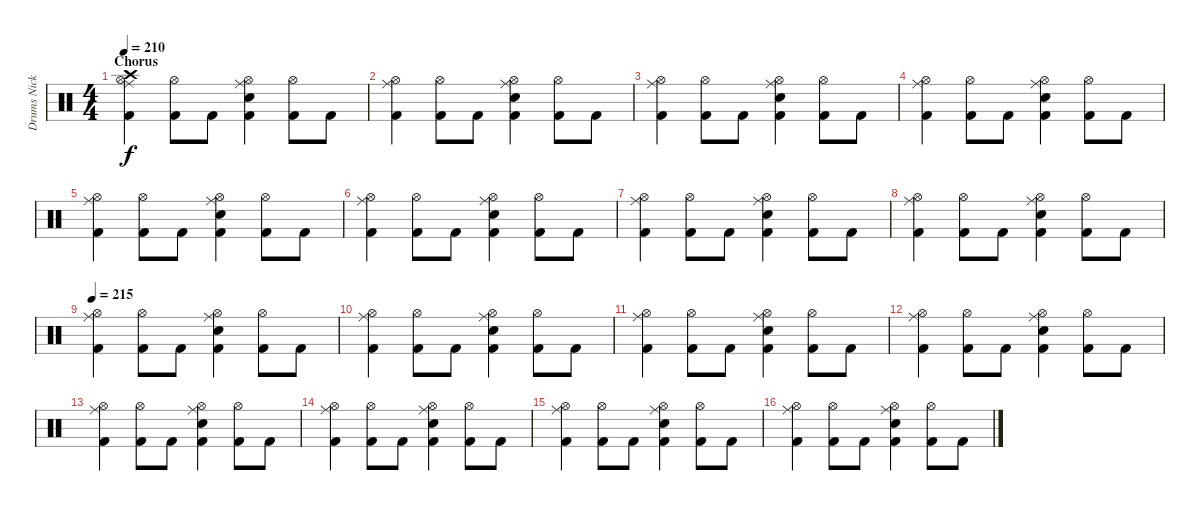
\track ("Drums Nicko McBrain" "Drums Nick") {instrument percussion}
\staff {score}
\articulation defaults
\ts (4 4)
\section ("" "Chorus")
\tempo 210
\clef neutral
\ks c
("Hi-Hat (open)" "Ride (middle)" "Crash high (hit)" "Kick (hit) 2").4{dy f} ("Hi-Hat (open)" "Kick (hit) 2").8 "Kick (hit) 2".8 ("Hi-Hat (open)" "Snare (hit) 2" "Ride (middle)" "Kick (hit) 2").4 ("Hi-Hat (open)" "Kick (hit) 2").8 "Kick (hit) 2".8 |
("Hi-Hat (open)" "Ride (middle)" "Kick (hit) 2").4 ("Hi-Hat (open)" "Kick (hit) 2").8 "Kick (hit) 2".8 ("Hi-Hat (open)" "Snare (hit) 2" "Ride (middle)" "Kick (hit) 2").4 ("Hi-Hat (open)" "Kick (hit) 2").8 "Kick (hit) 2".8 |
("Hi-Hat (open)" "Ride (middle)" "Kick (hit) 2").4 ("Hi-Hat (open)" "Kick (hit) 2").8 "Kick (hit) 2".8 ("Hi-Hat (open)" "Snare (hit) 2" "Ride (middle)" "Kick (hit) 2").4 ("Hi-Hat (open)" "Kick (hit) 2").8 "Kick (hit) 2".8 |
("Hi-Hat (open)" "Ride (middle)" "Kick (hit) 2").4 ("Hi-Hat (open)" "Kick (hit) 2").8 "Kick (hit) 2".8 ("Hi-Hat (open)" "Snare (hit) 2" "Ride (middle)" "Kick (hit) 2").4 ("Hi-Hat (open)" "Kick (hit) 2").8 "Kick (hit) 2".8 |
("Hi-Hat (open)" "Ride (middle)" "Kick (hit) 2").4 ("Hi-Hat (open)" "Kick (hit) 2").8 "Kick (hit) 2".8 ("Hi-Hat (open)" "Snare (hit) 2" "Ride (middle)" "Kick (hit) 2").4 ("Hi-Hat (open)" "Kick (hit) 2").8 "Kick (hit) 2".8 |
("Hi-Hat (open)" "Ride (middle)" "Kick (hit) 2").4 ("Hi-Hat (open)" "Kick (hit) 2").8 "Kick (hit) 2".8 ("Hi-Hat (open)" "Snare (hit) 2" "Ride (middle)" "Kick (hit) 2").4 ("Hi-Hat (open)" "Kick (hit) 2").8 "Kick (hit) 2".8 |
("Hi-Hat (open)" "Ride (middle)" "Kick (hit) 2").4 ("Hi-Hat (open)" "Kick (hit) 2").8 "Kick (hit) 2".8 ("Hi-Hat (open)" "Snare (hit) 2" "Ride (middle)" "Kick (hit) 2").4 ("Hi-Hat (open)" "Kick (hit) 2").8 "Kick (hit) 2".8 |
("Hi-Hat (open)" "Ride (middle)" "Kick (hit) 2").4 ("Hi-Hat (open)" "Kick (hit) 2").8 "Kick (hit) 2".8 ("Hi-Hat (open)" "Snare (hit) 2" "Ride (middle)" "Kick (hit) 2").4 ("Hi-Hat (open)" "Kick (hit) 2").8 "Kick (hit) 2".8 |
\tempo 215
("Hi-Hat (open)" "Ride (middle)" "Kick (hit) 2").4 ("Hi-Hat (open)" "Kick (hit) 2").8 "Kick (hit) 2".8 ("Hi-Hat (open)" "Snare (hit) 2" "Ride (middle)" "Kick (hit) 2").4 ("Hi-Hat (open)" "Kick (hit) 2").8 "Kick (hit) 2".8 |
("Hi-Hat (open)" "Ride (middle)" "Kick (hit) 2").4 ("Hi-Hat (open)" "Kick (hit) 2").8 "Kick (hit) 2".8 ("Hi-Hat (open)" "Snare (hit) 2" "Ride (middle)" "Kick (hit) 2").4 ("Hi-Hat (open)" "Kick (hit) 2").8 "Kick (hit) 2".8 |
("Hi-Hat (open)" "Ride (middle)" "Kick (hit) 2").4 ("Hi-Hat (open)" "Kick (hit) 2").8 "Kick (hit) 2".8 ("Hi-Hat (open)" "Snare (hit) 2" "Ride (middle)" "Kick (hit) 2").4 ("Hi-Hat (open)" "Kick (hit) 2").8 "Kick (hit) 2".8 |
("Hi-Hat (open)" "Ride (middle)" "Kick (hit) 2").4 ("Hi-Hat (open)" "Kick (hit) 2").8 "Kick (hit) 2".8 ("Hi-Hat (open)" "Snare (hit) 2" "Ride (middle)" "Kick (hit) 2").4 ("Hi-Hat (open)" "Kick (hit) 2").8 "Kick (hit) 2".8 |
("Hi-Hat (open)" "Ride (middle)" "Kick (hit) 2").4 ("Hi-Hat (open)" "Kick (hit) 2").8 "Kick (hit) 2".8 ("Hi-Hat (open)" "Snare (hit) 2" "Ride (middle)" "Kick (hit) 2").4 ("Hi-Hat (open)" "Kick (hit) 2").8 "Kick (hit) 2".8 |
("Hi-Hat (open)" "Ride (middle)" "Kick (hit) 2").4 ("Hi-Hat (open)" "Kick (hit) 2").8 "Kick (hit) 2".8 ("Hi-Hat (open)" "Snare (hit) 2" "Ride (middle)" "Kick (hit) 2").4 ("Hi-Hat (open)" "Kick (hit) 2").8 "Kick (hit) 2".8 |
("Hi-Hat (open)" "Ride (middle)" "Kick (hit) 2").4 ("Hi-Hat (open)" "Kick (hit) 2").8 "Kick (hit) 2".8 ("Hi-Hat (open)" "Snare (hit) 2" "Ride (middle)" "Kick (hit) 2").4 ("Hi-Hat (open)" "Kick (hit) 2").8 "Kick (hit) 2".8 |
("Hi-Hat (open)" "Ride (middle)" "Kick (hit) 2").4 ("Hi-Hat (open)" "Kick (hit) 2").8 "Kick (hit) 2".8 ("Hi-Hat (open)" "Snare (hit) 2" "Ride (middle)" "Kick (hit) 2").4 ("Hi-Hat (open)" "Kick (hit) 2").8 "Kick (hit) 2".8
